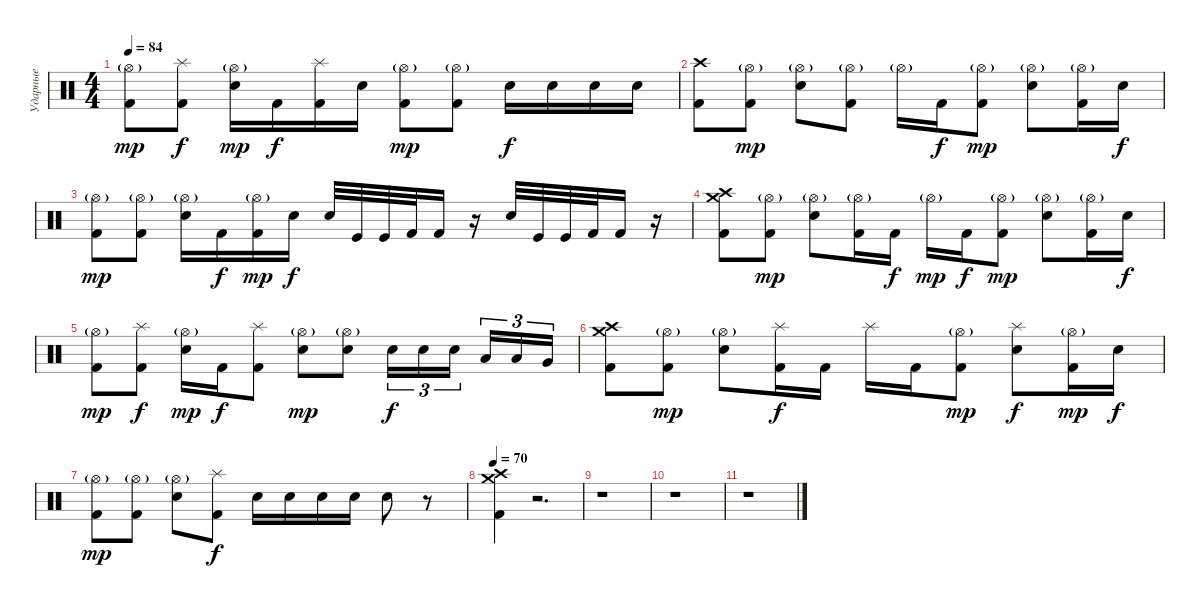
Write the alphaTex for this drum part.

\track ("Ударные" "Ударные") {instrument percussion}
\staff {score}
\articulation defaults
\ts (4 4)
\tempo 84
\clef neutral
\ks c
("Hi-Hat (open)"{g} "Kick (hit) 2").8{dy mp} ("Splash (hit)" "Kick (hit) 2").8{dy f} ("Hi-Hat (open)"{g} "Electric Snare (hit)").16{dy mp} "Kick (hit) 2".16{dy f} ("Splash (hit)" "Kick (hit) 2").16 "Electric Snare (hit)".16 ("Hi-Hat (open)"{g} "Kick (hit) 2").8{dy mp} ("Hi-Hat (open)"{g} "Kick (hit) 2").8 "Electric Snare (hit)".16{dy f} "Electric Snare (hit)".16 "Electric Snare (hit)".16 "Electric Snare (hit)".16 |
("Crash high (hit)" "Kick (hit) 2").8 ("Hi-Hat (open)"{g} "Kick (hit) 2").8{dy mp} ("Hi-Hat (open)"{g} "Electric Snare (hit)").8 ("Hi-Hat (open)"{g} "Kick (hit) 2").8 "Hi-Hat (open)"{g}.16 "Kick (hit) 2".16{dy f} ("Hi-Hat (open)"{g} "Kick (hit) 2").8{dy mp} ("Hi-Hat (open)"{g} "Electric Snare (hit)").8 ("Hi-Hat (open)"{g} "Kick (hit) 2").16 "Electric Snare (hit)".16{dy f} |
("Hi-Hat (open)"{g} "Kick (hit) 2").8{dy mp} ("Hi-Hat (open)"{g} "Kick (hit) 2").8 ("Hi-Hat (open)"{g} "Electric Snare (hit)").16 "Kick (hit) 2".16{dy f} ("Hi-Hat (open)"{g} "Kick (hit) 2").16{dy mp} "Electric Snare (hit)".16{dy f} "Electric Snare (hit)".32 "Kick (hit)".32 "Kick (hit)".32 "Kick (hit) 2".32 "Kick (hit) 2".16 r.16 "Electric Snare (hit)".32 "Kick (hit)".32 "Kick (hit)".32 "Kick (hit) 2".32 "Kick (hit) 2".16 r.16 |
("Crash high (hit)" "Crash medium (hit)" "Kick (hit) 2").8 ("Hi-Hat (open)"{g} "Kick (hit) 2").8{dy mp} ("Hi-Hat (open)"{g} "Electric Snare (hit)").8 ("Hi-Hat (open)"{g} "Kick (hit) 2").16 "Kick (hit) 2".16{dy f} "Hi-Hat (open)"{g}.16{dy mp} "Kick (hit) 2".16{dy f} ("Hi-Hat (open)"{g} "Kick (hit) 2").8{dy mp} ("Hi-Hat (open)"{g} "Electric Snare (hit)").8 ("Hi-Hat (open)"{g} "Kick (hit) 2").16 "Electric Snare (hit)".16{dy f} |
("Hi-Hat (open)"{g} "Kick (hit) 2").8{dy mp} ("Splash (hit)" "Kick (hit) 2").8{dy f} ("Hi-Hat (open)"{g} "Electric Snare (hit)").16{dy mp} "Kick (hit) 2".16{dy f} ("Splash (hit)" "Kick (hit) 2").8 ("Hi-Hat (open)"{g} "Electric Snare (hit)").8{dy mp} ("Hi-Hat (open)"{g} "Electric Snare (hit)").8 "Electric Snare (hit)".16{tu (3 2) dy f} "Electric Snare (hit)".16{tu (3 2)} "Electric Snare (hit)".16{tu (3 2) beam splitsecondary} "Low Tom (hit)".16{tu (3 2)} "Low Tom (hit)".16{tu (3 2)} "Very Low Tom (hit)".16{tu (3 2)} |
("Crash high (hit)" "Crash medium (hit)" "Kick (hit) 2").8 ("Hi-Hat (open)"{g} "Kick (hit) 2").8{dy mp} ("Hi-Hat (open)"{g} "Electric Snare (hit)").8 ("Splash (hit)" "Kick (hit) 2").16{dy f} "Kick (hit) 2".16 "Splash (hit)".16 "Kick (hit) 2".16 ("Hi-Hat (open)"{g} "Kick (hit) 2").8{dy mp} ("Splash (hit)" "Electric Snare (hit)").8{dy f} ("Hi-Hat (open)"{g} "Kick (hit) 2").16{dy mp} "Electric Snare (hit)".16{dy f} |
("Hi-Hat (open)"{g} "Kick (hit) 2").8{dy mp} ("Hi-Hat (open)"{g} "Kick (hit) 2").8 ("Hi-Hat (open)"{g} "Electric Snare (hit)").8 ("Splash (hit)" "Kick (hit) 2").8{dy f} "Electric Snare (hit)".16 "Electric Snare (hit)".16 "Electric Snare (hit)".16 "Electric Snare (hit)".16 "Electric Snare (hit)".8 r.8 |
\tempo 70
("Crash high (hit)" "Crash medium (hit)" "Kick (hit) 2").4 r.2{d} |
r.1 |
r.1 |
r.1
